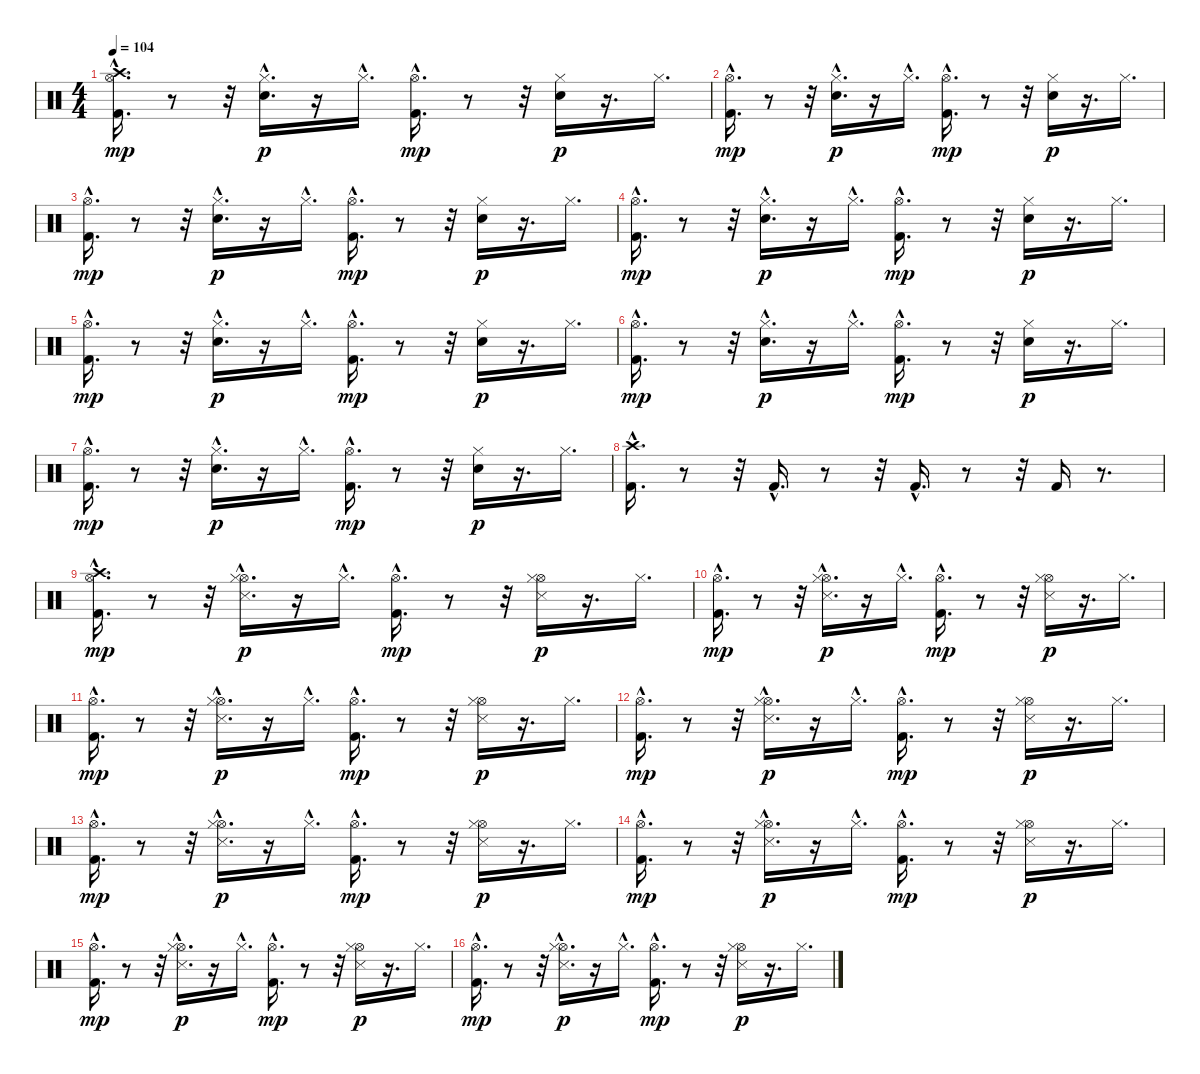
\track "" {instrument percussion}
\staff {score}
\articulation defaults
\ts (4 4)
\tempo 104
\clef neutral
\ks c
("Crash high (hit)"{hac} "Hi-Hat (open)"{hac} "Kick (hit) 2"{hac}).16{d dy mp} r.8 r.32 ("Hi-Hat (closed)"{hac} "Snare (hit) 2"{hac}).16{d dy p} r.16 "Hi-Hat (closed)"{hac}.16{d} ("Hi-Hat (open)"{hac} "Kick (hit) 2"{hac}).16{d dy mp} r.8 r.32 ("Hi-Hat (closed)" "Snare (hit) 2").16{dy p} r.16{d} "Hi-Hat (closed)".16{d} |
("Hi-Hat (open)"{hac} "Kick (hit) 2"{hac}).16{d dy mp} r.8 r.32 ("Hi-Hat (closed)"{hac} "Snare (hit) 2"{hac}).16{d dy p} r.16 "Hi-Hat (closed)"{hac}.16{d} ("Hi-Hat (open)"{hac} "Kick (hit) 2"{hac}).16{d dy mp} r.8 r.32 ("Hi-Hat (closed)" "Snare (hit) 2").16{dy p} r.16{d} "Hi-Hat (closed)".16{d} |
("Hi-Hat (open)"{hac} "Kick (hit) 2"{hac}).16{d dy mp} r.8 r.32 ("Hi-Hat (closed)"{hac} "Snare (hit) 2"{hac}).16{d dy p} r.16 "Hi-Hat (closed)"{hac}.16{d} ("Hi-Hat (open)"{hac} "Kick (hit) 2"{hac}).16{d dy mp} r.8 r.32 ("Hi-Hat (closed)" "Snare (hit) 2").16{dy p} r.16{d} "Hi-Hat (closed)".16{d} |
("Hi-Hat (open)"{hac} "Kick (hit) 2"{hac}).16{d dy mp} r.8 r.32 ("Hi-Hat (closed)"{hac} "Snare (hit) 2"{hac}).16{d dy p} r.16 "Hi-Hat (closed)"{hac}.16{d} ("Hi-Hat (open)"{hac} "Kick (hit) 2"{hac}).16{d dy mp} r.8 r.32 ("Hi-Hat (closed)" "Snare (hit) 2").16{dy p} r.16{d} "Hi-Hat (closed)".16{d} |
("Hi-Hat (open)"{hac} "Kick (hit) 2"{hac}).16{d dy mp} r.8 r.32 ("Hi-Hat (closed)"{hac} "Snare (hit) 2"{hac}).16{d dy p} r.16 "Hi-Hat (closed)"{hac}.16{d} ("Hi-Hat (open)"{hac} "Kick (hit) 2"{hac}).16{d dy mp} r.8 r.32 ("Hi-Hat (closed)" "Snare (hit) 2").16{dy p} r.16{d} "Hi-Hat (closed)".16{d} |
("Hi-Hat (open)"{hac} "Kick (hit) 2"{hac}).16{d dy mp} r.8 r.32 ("Hi-Hat (closed)"{hac} "Snare (hit) 2"{hac}).16{d dy p} r.16 "Hi-Hat (closed)"{hac}.16{d} ("Hi-Hat (open)"{hac} "Kick (hit) 2"{hac}).16{d dy mp} r.8 r.32 ("Hi-Hat (closed)" "Snare (hit) 2").16{dy p} r.16{d} "Hi-Hat (closed)".16{d} |
("Hi-Hat (open)"{hac} "Kick (hit) 2"{hac}).16{d dy mp} r.8 r.32 ("Hi-Hat (closed)"{hac} "Snare (hit) 2"{hac}).16{d dy p} r.16 "Hi-Hat (closed)"{hac}.16{d} ("Hi-Hat (open)"{hac} "Kick (hit) 2"{hac}).16{d dy mp} r.8 r.32 ("Hi-Hat (closed)" "Snare (hit) 2").16{dy p} r.16{d} "Hi-Hat (closed)".16{d} |
("Kick (hit) 2"{hac} "Crash high (hit)"{hac}).16{d} r.8 r.32 "Kick (hit) 2"{hac}.16{d} r.8 r.32 "Kick (hit) 2"{hac}.16{d} r.8 r.32 "Kick (hit) 2".16 r.8{d} |
("Crash high (hit)"{hac} "Hi-Hat (open)"{hac} "Kick (hit) 2"{hac}).16{d dy mp} r.8 r.32 ("Snare (side stick) 3"{hac} "Hi-Hat (open)"{hac} "Hi-Hat (closed)"{hac}).16{d dy p} r.16 "Hi-Hat (closed)"{hac}.16{d} ("Hi-Hat (open)"{hac} "Kick (hit) 2"{hac}).16{d dy mp} r.8 r.32 ("Snare (side stick) 3" "Hi-Hat (open)" "Hi-Hat (closed)").16{dy p} r.16{d} "Hi-Hat (closed)".16{d} |
("Hi-Hat (open)"{hac} "Kick (hit) 2"{hac}).16{d dy mp} r.8 r.32 ("Snare (side stick) 3"{hac} "Hi-Hat (open)"{hac} "Hi-Hat (closed)"{hac}).16{d dy p} r.16 "Hi-Hat (closed)"{hac}.16{d} ("Hi-Hat (open)"{hac} "Kick (hit) 2"{hac}).16{d dy mp} r.8 r.32 ("Snare (side stick) 3" "Hi-Hat (open)" "Hi-Hat (closed)").16{dy p} r.16{d} "Hi-Hat (closed)".16{d} |
("Hi-Hat (open)"{hac} "Kick (hit) 2"{hac}).16{d dy mp} r.8 r.32 ("Snare (side stick) 3"{hac} "Hi-Hat (open)"{hac} "Hi-Hat (closed)"{hac}).16{d dy p} r.16 "Hi-Hat (closed)"{hac}.16{d} ("Hi-Hat (open)"{hac} "Kick (hit) 2"{hac}).16{d dy mp} r.8 r.32 ("Snare (side stick) 3" "Hi-Hat (open)" "Hi-Hat (closed)").16{dy p} r.16{d} "Hi-Hat (closed)".16{d} |
("Hi-Hat (open)"{hac} "Kick (hit) 2"{hac}).16{d dy mp} r.8 r.32 ("Snare (side stick) 3"{hac} "Hi-Hat (open)"{hac} "Hi-Hat (closed)"{hac}).16{d dy p} r.16 "Hi-Hat (closed)"{hac}.16{d} ("Hi-Hat (open)"{hac} "Kick (hit) 2"{hac}).16{d dy mp} r.8 r.32 ("Snare (side stick) 3" "Hi-Hat (open)" "Hi-Hat (closed)").16{dy p} r.16{d} "Hi-Hat (closed)".16{d} |
("Hi-Hat (open)"{hac} "Kick (hit) 2"{hac}).16{d dy mp} r.8 r.32 ("Snare (side stick) 3"{hac} "Hi-Hat (open)"{hac} "Hi-Hat (closed)"{hac}).16{d dy p} r.16 "Hi-Hat (closed)"{hac}.16{d} ("Hi-Hat (open)"{hac} "Kick (hit) 2"{hac}).16{d dy mp} r.8 r.32 ("Snare (side stick) 3" "Hi-Hat (open)" "Hi-Hat (closed)").16{dy p} r.16{d} "Hi-Hat (closed)".16{d} |
("Hi-Hat (open)"{hac} "Kick (hit) 2"{hac}).16{d dy mp} r.8 r.32 ("Snare (side stick) 3"{hac} "Hi-Hat (open)"{hac} "Hi-Hat (closed)"{hac}).16{d dy p} r.16 "Hi-Hat (closed)"{hac}.16{d} ("Hi-Hat (open)"{hac} "Kick (hit) 2"{hac}).16{d dy mp} r.8 r.32 ("Snare (side stick) 3" "Hi-Hat (open)" "Hi-Hat (closed)").16{dy p} r.16{d} "Hi-Hat (closed)".16{d} |
("Hi-Hat (open)"{hac} "Kick (hit) 2"{hac}).16{d dy mp} r.8 r.32 ("Snare (side stick) 3"{hac} "Hi-Hat (open)"{hac} "Hi-Hat (closed)"{hac}).16{d dy p} r.16 "Hi-Hat (closed)"{hac}.16{d} ("Hi-Hat (open)"{hac} "Kick (hit) 2"{hac}).16{d dy mp} r.8 r.32 ("Snare (side stick) 3" "Hi-Hat (open)" "Hi-Hat (closed)").16{dy p} r.16{d} "Hi-Hat (closed)".16{d} |
("Hi-Hat (open)"{hac} "Kick (hit) 2"{hac}).16{d dy mp} r.8 r.32 ("Snare (side stick) 3"{hac} "Hi-Hat (open)"{hac} "Hi-Hat (closed)"{hac}).16{d dy p} r.16 "Hi-Hat (closed)"{hac}.16{d} ("Hi-Hat (open)"{hac} "Kick (hit) 2"{hac}).16{d dy mp} r.8 r.32 ("Snare (side stick) 3" "Hi-Hat (open)" "Hi-Hat (closed)").16{dy p} r.16{d} "Hi-Hat (closed)".16{d}
